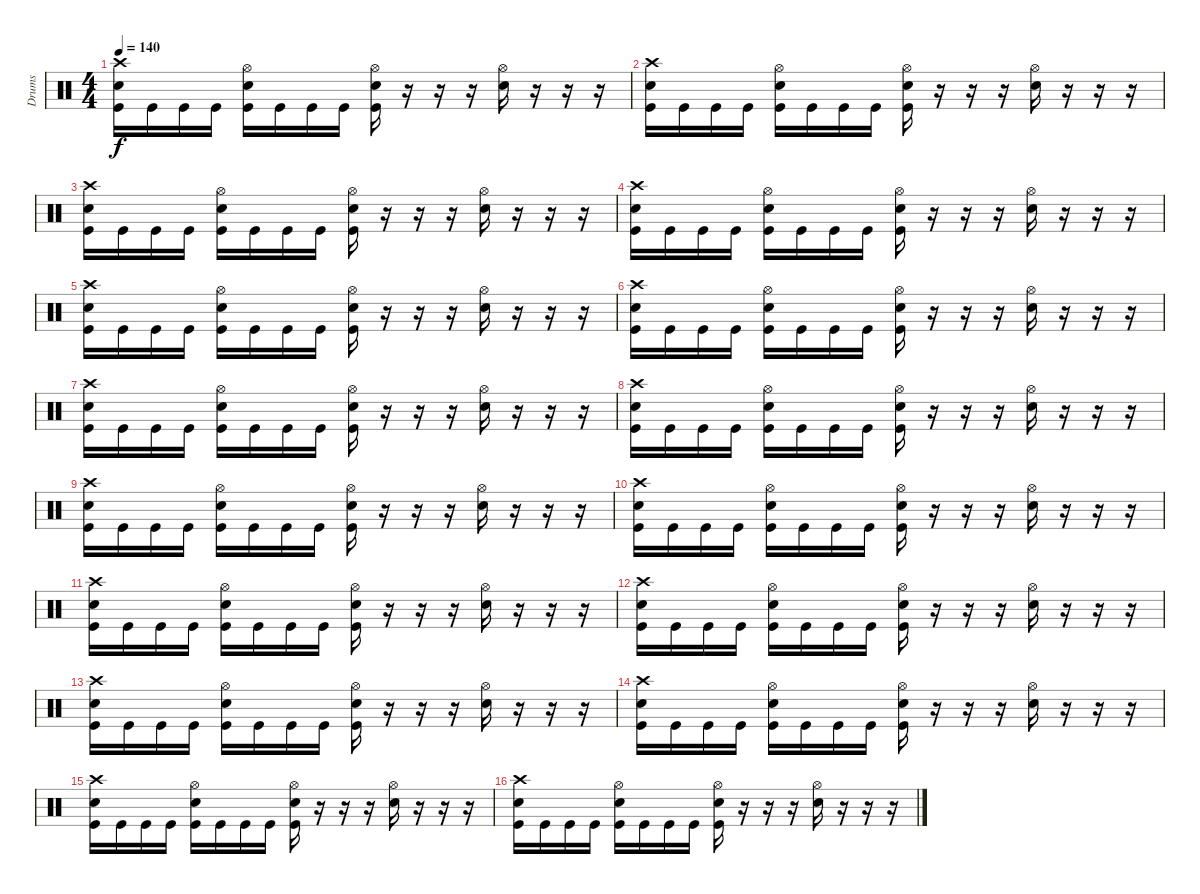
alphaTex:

\track ("Drums" "Drums") {instrument percussion}
\staff {score}
\articulation defaults
\ts (4 4)
\tempo 140
\clef neutral
\ks c
("Crash high (hit)" "Snare (hit) 2" "Kick (hit)").16{dy f} "Kick (hit)".16 "Kick (hit)".16 "Kick (hit)".16 ("Hi-Hat (open)" "Snare (hit) 2" "Kick (hit)").16 "Kick (hit)".16 "Kick (hit)".16 "Kick (hit)".16 ("Hi-Hat (open)" "Snare (hit) 2" "Kick (hit)").16 r.16 r.16 r.16 ("Hi-Hat (open)" "Snare (hit) 2").16 r.16 r.16 r.16 |
("Crash high (hit)" "Snare (hit) 2" "Kick (hit)").16 "Kick (hit)".16 "Kick (hit)".16 "Kick (hit)".16 ("Hi-Hat (open)" "Snare (hit) 2" "Kick (hit)").16 "Kick (hit)".16 "Kick (hit)".16 "Kick (hit)".16 ("Hi-Hat (open)" "Snare (hit) 2" "Kick (hit)").16 r.16 r.16 r.16 ("Hi-Hat (open)" "Snare (hit) 2").16 r.16 r.16 r.16 |
("Crash high (hit)" "Snare (hit) 2" "Kick (hit)").16 "Kick (hit)".16 "Kick (hit)".16 "Kick (hit)".16 ("Hi-Hat (open)" "Snare (hit) 2" "Kick (hit)").16 "Kick (hit)".16 "Kick (hit)".16 "Kick (hit)".16 ("Hi-Hat (open)" "Snare (hit) 2" "Kick (hit)").16 r.16 r.16 r.16 ("Hi-Hat (open)" "Snare (hit) 2").16 r.16 r.16 r.16 |
("Crash high (hit)" "Snare (hit) 2" "Kick (hit)").16 "Kick (hit)".16 "Kick (hit)".16 "Kick (hit)".16 ("Hi-Hat (open)" "Snare (hit) 2" "Kick (hit)").16 "Kick (hit)".16 "Kick (hit)".16 "Kick (hit)".16 ("Hi-Hat (open)" "Snare (hit) 2" "Kick (hit)").16 r.16 r.16 r.16 ("Hi-Hat (open)" "Snare (hit) 2").16 r.16 r.16 r.16 |
("Crash high (hit)" "Snare (hit) 2" "Kick (hit)").16 "Kick (hit)".16 "Kick (hit)".16 "Kick (hit)".16 ("Hi-Hat (open)" "Snare (hit) 2" "Kick (hit)").16 "Kick (hit)".16 "Kick (hit)".16 "Kick (hit)".16 ("Hi-Hat (open)" "Snare (hit) 2" "Kick (hit)").16 r.16 r.16 r.16 ("Hi-Hat (open)" "Snare (hit) 2").16 r.16 r.16 r.16 |
("Crash high (hit)" "Snare (hit) 2" "Kick (hit)").16 "Kick (hit)".16 "Kick (hit)".16 "Kick (hit)".16 ("Hi-Hat (open)" "Snare (hit) 2" "Kick (hit)").16 "Kick (hit)".16 "Kick (hit)".16 "Kick (hit)".16 ("Hi-Hat (open)" "Snare (hit) 2" "Kick (hit)").16 r.16 r.16 r.16 ("Hi-Hat (open)" "Snare (hit) 2").16 r.16 r.16 r.16 |
("Crash high (hit)" "Snare (hit) 2" "Kick (hit)").16 "Kick (hit)".16 "Kick (hit)".16 "Kick (hit)".16 ("Hi-Hat (open)" "Snare (hit) 2" "Kick (hit)").16 "Kick (hit)".16 "Kick (hit)".16 "Kick (hit)".16 ("Hi-Hat (open)" "Snare (hit) 2" "Kick (hit)").16 r.16 r.16 r.16 ("Hi-Hat (open)" "Snare (hit) 2").16 r.16 r.16 r.16 |
("Crash high (hit)" "Snare (hit) 2" "Kick (hit)").16 "Kick (hit)".16 "Kick (hit)".16 "Kick (hit)".16 ("Hi-Hat (open)" "Snare (hit) 2" "Kick (hit)").16 "Kick (hit)".16 "Kick (hit)".16 "Kick (hit)".16 ("Hi-Hat (open)" "Snare (hit) 2" "Kick (hit)").16 r.16 r.16 r.16 ("Hi-Hat (open)" "Snare (hit) 2").16 r.16 r.16 r.16 |
("Crash high (hit)" "Snare (hit) 2" "Kick (hit)").16 "Kick (hit)".16 "Kick (hit)".16 "Kick (hit)".16 ("Hi-Hat (open)" "Snare (hit) 2" "Kick (hit)").16 "Kick (hit)".16 "Kick (hit)".16 "Kick (hit)".16 ("Hi-Hat (open)" "Snare (hit) 2" "Kick (hit)").16 r.16 r.16 r.16 ("Hi-Hat (open)" "Snare (hit) 2").16 r.16 r.16 r.16 |
("Crash high (hit)" "Snare (hit) 2" "Kick (hit)").16 "Kick (hit)".16 "Kick (hit)".16 "Kick (hit)".16 ("Hi-Hat (open)" "Snare (hit) 2" "Kick (hit)").16 "Kick (hit)".16 "Kick (hit)".16 "Kick (hit)".16 ("Hi-Hat (open)" "Snare (hit) 2" "Kick (hit)").16 r.16 r.16 r.16 ("Hi-Hat (open)" "Snare (hit) 2").16 r.16 r.16 r.16 |
("Crash high (hit)" "Snare (hit) 2" "Kick (hit)").16 "Kick (hit)".16 "Kick (hit)".16 "Kick (hit)".16 ("Hi-Hat (open)" "Snare (hit) 2" "Kick (hit)").16 "Kick (hit)".16 "Kick (hit)".16 "Kick (hit)".16 ("Hi-Hat (open)" "Snare (hit) 2" "Kick (hit)").16 r.16 r.16 r.16 ("Hi-Hat (open)" "Snare (hit) 2").16 r.16 r.16 r.16 |
("Crash high (hit)" "Snare (hit) 2" "Kick (hit)").16 "Kick (hit)".16 "Kick (hit)".16 "Kick (hit)".16 ("Hi-Hat (open)" "Snare (hit) 2" "Kick (hit)").16 "Kick (hit)".16 "Kick (hit)".16 "Kick (hit)".16 ("Hi-Hat (open)" "Snare (hit) 2" "Kick (hit)").16 r.16 r.16 r.16 ("Hi-Hat (open)" "Snare (hit) 2").16 r.16 r.16 r.16 |
("Crash high (hit)" "Snare (hit) 2" "Kick (hit)").16 "Kick (hit)".16 "Kick (hit)".16 "Kick (hit)".16 ("Hi-Hat (open)" "Snare (hit) 2" "Kick (hit)").16 "Kick (hit)".16 "Kick (hit)".16 "Kick (hit)".16 ("Hi-Hat (open)" "Snare (hit) 2" "Kick (hit)").16 r.16 r.16 r.16 ("Hi-Hat (open)" "Snare (hit) 2").16 r.16 r.16 r.16 |
("Crash high (hit)" "Snare (hit) 2" "Kick (hit)").16 "Kick (hit)".16 "Kick (hit)".16 "Kick (hit)".16 ("Hi-Hat (open)" "Snare (hit) 2" "Kick (hit)").16 "Kick (hit)".16 "Kick (hit)".16 "Kick (hit)".16 ("Hi-Hat (open)" "Snare (hit) 2" "Kick (hit)").16 r.16 r.16 r.16 ("Hi-Hat (open)" "Snare (hit) 2").16 r.16 r.16 r.16 |
("Crash high (hit)" "Snare (hit) 2" "Kick (hit)").16 "Kick (hit)".16 "Kick (hit)".16 "Kick (hit)".16 ("Hi-Hat (open)" "Snare (hit) 2" "Kick (hit)").16 "Kick (hit)".16 "Kick (hit)".16 "Kick (hit)".16 ("Hi-Hat (open)" "Snare (hit) 2" "Kick (hit)").16 r.16 r.16 r.16 ("Hi-Hat (open)" "Snare (hit) 2").16 r.16 r.16 r.16 |
("Crash high (hit)" "Snare (hit) 2" "Kick (hit)").16 "Kick (hit)".16 "Kick (hit)".16 "Kick (hit)".16 ("Hi-Hat (open)" "Snare (hit) 2" "Kick (hit)").16 "Kick (hit)".16 "Kick (hit)".16 "Kick (hit)".16 ("Hi-Hat (open)" "Snare (hit) 2" "Kick (hit)").16 r.16 r.16 r.16 ("Hi-Hat (open)" "Snare (hit) 2").16 r.16 r.16 r.16
